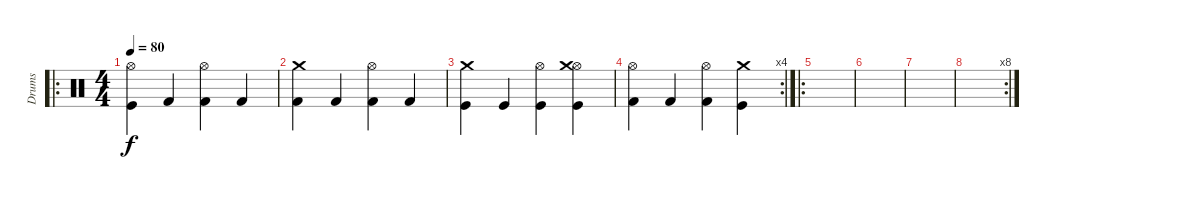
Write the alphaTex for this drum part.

\track ("Drums" "Drums") {instrument percussion}
\staff {score}
\articulation defaults
\ro
\ts (4 4)
\tempo 80
\clef neutral
\ks c
("Hi-Hat (open)" "Kick (hit)").4{dy f} "Kick (hit) 2".4 ("Kick (hit) 2" "Hi-Hat (open)").4 "Kick (hit) 2".4 |
("Kick (hit) 2" "Crash medium (hit)").4 "Kick (hit) 2".4 ("Kick (hit) 2" "Hi-Hat (open)").4 "Kick (hit) 2".4 |
("Kick (hit)" "Crash medium (hit)").4 "Kick (hit)".4 ("Hi-Hat (open)" "Kick (hit)").4 ("Hi-Hat (open)" "Crash medium (hit)" "Kick (hit)").4 |
\rc 4
("Hi-Hat (open)" "Kick (hit) 2").4 "Kick (hit) 2".4 ("Hi-Hat (open)" "Kick (hit) 2").4 ("Crash medium (hit)" "Kick (hit)").4 |
\ro
|
|
|
\rc 8
